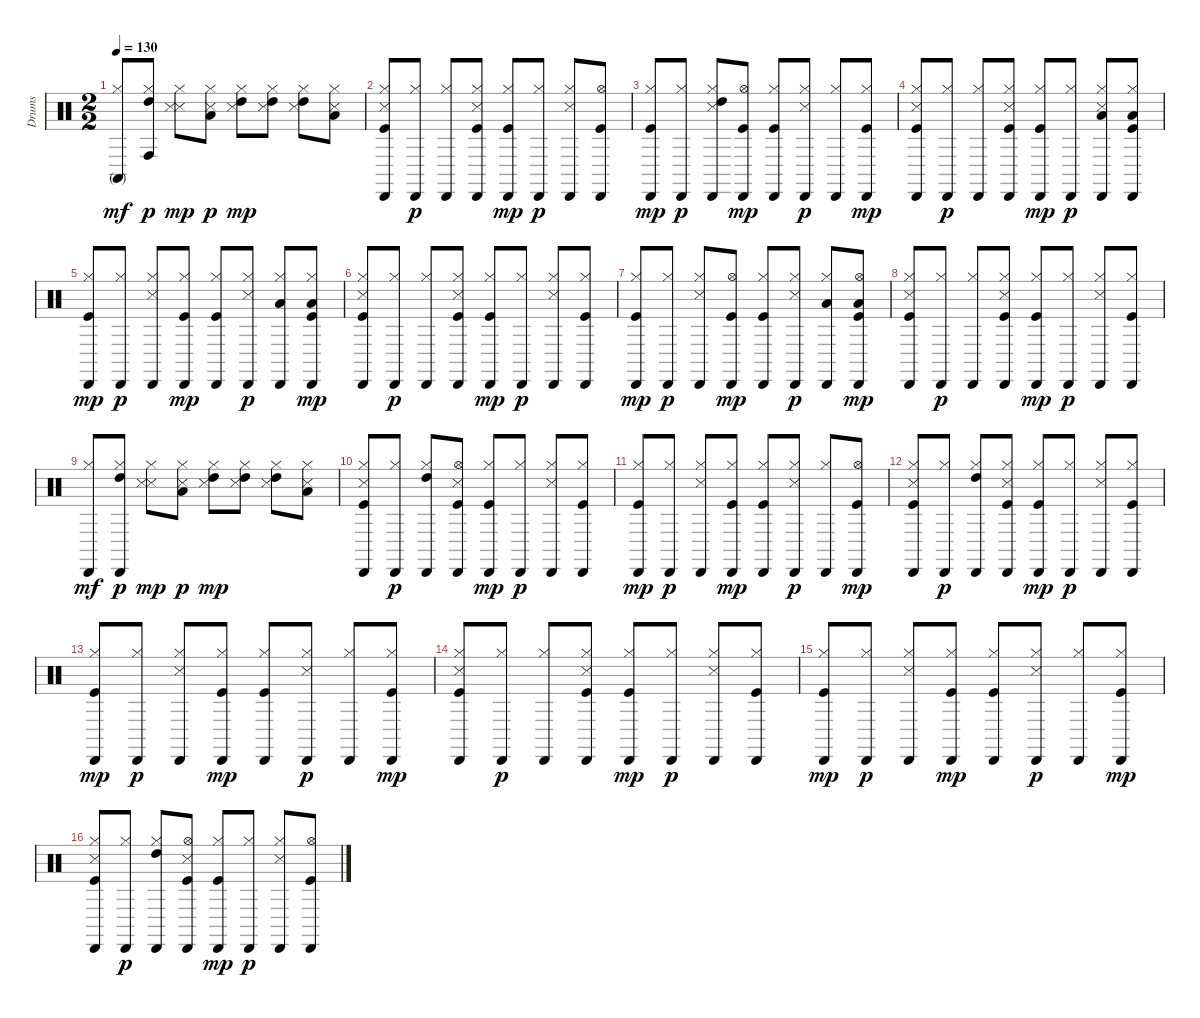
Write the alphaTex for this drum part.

\track ("Drums" "Drums") {instrument percussion}
\staff {score}
\articulation defaults
\ts (2 2)
\tempo 130
\clef neutral
\ks c
("Hi-Hat (closed)" "Conga high (mute)").8{dy mf} ("Hi-Hat (closed)" "High Tom (hit)" "Conga high (hit)").8{dy p} ("Snare (side stick) 3" "Snare (side stick) 3" "Hi-Hat (closed)").8{dy mp} ("Snare (side stick) 3" "Hi-Hat (closed)" "Low Tom (hit)").8{dy p} ("Snare (side stick) 3" "Hi-Hat (closed)" "High Tom (hit)").8{dy mp} ("Snare (side stick) 3" "Hi-Hat (closed)" "High Tom (hit)").8 ("Snare (side stick) 3" "Hi-Hat (closed)" "High Tom (hit)").8 ("Snare (side stick) 3" "Hi-Hat (closed)" "Low Tom (hit)").8 |
("Kick (hit)" "Snare (side stick) 3" "Hi-Hat (closed)" "Cabasa (hit)").8 ("Hi-Hat (closed)" "Cabasa (hit)").8{dy p} ("Hi-Hat (closed)" "Cabasa (hit)").8 ("Kick (hit)" "Snare (side stick) 3" "Hi-Hat (closed)" "Cabasa (hit)").8 ("Kick (hit)" "Hi-Hat (closed)" "Cabasa (hit)").8{dy mp} ("Hi-Hat (closed)" "Cabasa (hit)").8{dy p} ("Snare (side stick) 3" "Hi-Hat (closed)" "Cabasa (hit)").8 ("Kick (hit)" "Hi-Hat (open)" "Cabasa (hit)").8 |
("Kick (hit)" "Hi-Hat (closed)" "Cabasa (hit)").8{dy mp} ("Hi-Hat (closed)" "Cabasa (hit)").8{dy p} ("Snare (side stick) 3" "Hi-Hat (closed)" "High Tom (hit)" "Cabasa (hit)").8 ("Kick (hit)" "Hi-Hat (open)" "Cabasa (hit)").8{dy mp} ("Kick (hit)" "Hi-Hat (closed)" "Cabasa (hit)").8 ("Snare (side stick) 3" "Hi-Hat (closed)" "Cabasa (hit)").8{dy p} ("Hi-Hat (closed)" "Cabasa (hit)").8 ("Kick (hit)" "Hi-Hat (closed)" "Cabasa (hit)").8{dy mp} |
("Kick (hit)" "Snare (side stick) 3" "Hi-Hat (closed)" "Cabasa (hit)").8 ("Hi-Hat (closed)" "Cabasa (hit)").8{dy p} ("Hi-Hat (closed)" "Cabasa (hit)").8 ("Kick (hit)" "Snare (side stick) 3" "Hi-Hat (closed)" "Cabasa (hit)").8 ("Kick (hit)" "Hi-Hat (closed)" "Cabasa (hit)").8{dy mp} ("Hi-Hat (closed)" "Cabasa (hit)").8{dy p} ("Snare (side stick) 3" "Hi-Hat (closed)" "Low Tom (hit)" "Cabasa (hit)").8 ("Kick (hit)" "Hi-Hat (closed)" "Low Tom (hit)" "Cabasa (hit)").8 |
("Kick (hit)" "Hi-Hat (closed)" "Cabasa (hit)").8{dy mp} ("Hi-Hat (closed)" "Cabasa (hit)").8{dy p} ("Snare (side stick) 3" "Hi-Hat (closed)" "Cabasa (hit)").8 ("Kick (hit)" "Hi-Hat (closed)" "Cabasa (hit)").8{dy mp} ("Kick (hit)" "Hi-Hat (closed)" "Cabasa (hit)").8 ("Snare (side stick) 3" "Hi-Hat (closed)" "Cabasa (hit)").8{dy p} ("Hi-Hat (closed)" "Low Tom (hit)" "Cabasa (hit)").8 ("Kick (hit)" "Hi-Hat (closed)" "Low Tom (hit)" "Cabasa (hit)").8{dy mp} |
("Kick (hit)" "Snare (side stick) 3" "Hi-Hat (closed)" "Cabasa (hit)").8 ("Hi-Hat (closed)" "Cabasa (hit)").8{dy p} ("Hi-Hat (closed)" "Cabasa (hit)").8 ("Kick (hit)" "Snare (side stick) 3" "Hi-Hat (closed)" "Cabasa (hit)").8 ("Kick (hit)" "Hi-Hat (closed)" "Cabasa (hit)").8{dy mp} ("Hi-Hat (closed)" "Cabasa (hit)").8{dy p} ("Snare (side stick) 3" "Hi-Hat (closed)" "Cabasa (hit)").8 ("Kick (hit)" "Hi-Hat (closed)" "Cabasa (hit)").8 |
("Kick (hit)" "Hi-Hat (closed)" "Cabasa (hit)").8{dy mp} ("Hi-Hat (closed)" "Cabasa (hit)").8{dy p} ("Snare (side stick) 3" "Hi-Hat (closed)" "Cabasa (hit)").8 ("Kick (hit)" "Hi-Hat (open)" "Cabasa (hit)").8{dy mp} ("Kick (hit)" "Hi-Hat (closed)" "Cabasa (hit)").8 ("Snare (side stick) 3" "Hi-Hat (closed)" "Cabasa (hit)").8{dy p} ("Hi-Hat (closed)" "Low Tom (hit)" "Cabasa (hit)").8 ("Kick (hit)" "Low Tom (hit)" "Hi-Hat (open)" "Cabasa (hit)").8{dy mp} |
("Kick (hit)" "Snare (side stick) 3" "Hi-Hat (closed)" "Cabasa (hit)").8 ("Hi-Hat (closed)" "Cabasa (hit)").8{dy p} ("Hi-Hat (closed)" "Cabasa (hit)").8 ("Kick (hit)" "Snare (side stick) 3" "Hi-Hat (closed)" "Cabasa (hit)").8 ("Kick (hit)" "Hi-Hat (closed)" "Cabasa (hit)").8{dy mp} ("Hi-Hat (closed)" "Cabasa (hit)").8{dy p} ("Snare (side stick) 3" "Hi-Hat (closed)" "Cabasa (hit)").8 ("Kick (hit)" "Hi-Hat (closed)" "Cabasa (hit)").8 |
("Hi-Hat (closed)" "Cabasa (hit)").8{dy mf} ("Hi-Hat (closed)" "High Tom (hit)" "Cabasa (hit)").8{dy p} ("Snare (side stick) 3" "Snare (side stick) 3" "Hi-Hat (closed)").8{dy mp} ("Snare (side stick) 3" "Hi-Hat (closed)" "Low Tom (hit)").8{dy p} ("Snare (side stick) 3" "Hi-Hat (closed)" "High Tom (hit)").8{dy mp} ("Snare (side stick) 3" "Hi-Hat (closed)" "High Tom (hit)").8 ("Snare (side stick) 3" "Hi-Hat (closed)" "High Tom (hit)").8 ("Snare (side stick) 3" "Hi-Hat (closed)" "Low Tom (hit)").8 |
("Kick (hit)" "Snare (side stick) 3" "Hi-Hat (closed)" "Cabasa (hit)").8 ("Hi-Hat (closed)" "Cabasa (hit)").8{dy p} ("Hi-Hat (closed)" "High Tom (hit)" "Cabasa (hit)").8 ("Kick (hit)" "Snare (side stick) 3" "Hi-Hat (open)" "Cabasa (hit)").8 ("Kick (hit)" "Hi-Hat (closed)" "Cabasa (hit)").8{dy mp} ("Hi-Hat (closed)" "Cabasa (hit)").8{dy p} ("Snare (side stick) 3" "Hi-Hat (closed)" "Cabasa (hit)").8 ("Kick (hit)" "Hi-Hat (closed)" "Cabasa (hit)").8 |
("Kick (hit)" "Hi-Hat (closed)" "Cabasa (hit)").8{dy mp} ("Hi-Hat (closed)" "Cabasa (hit)").8{dy p} ("Snare (side stick) 3" "Hi-Hat (closed)" "Cabasa (hit)").8 ("Kick (hit)" "Hi-Hat (closed)" "Cabasa (hit)").8{dy mp} ("Kick (hit)" "Hi-Hat (closed)" "Cabasa (hit)").8 ("Snare (side stick) 3" "Hi-Hat (closed)" "Cabasa (hit)").8{dy p} ("Hi-Hat (closed)" "Cabasa (hit)").8 ("Kick (hit)" "Hi-Hat (open)" "Cabasa (hit)").8{dy mp} |
("Kick (hit)" "Snare (side stick) 3" "Hi-Hat (closed)" "Cabasa (hit)").8 ("Hi-Hat (closed)" "Cabasa (hit)").8{dy p} ("Hi-Hat (closed)" "High Tom (hit)" "Cabasa (hit)").8 ("Kick (hit)" "Snare (side stick) 3" "Hi-Hat (closed)" "Cabasa (hit)").8 ("Kick (hit)" "Hi-Hat (closed)" "Cabasa (hit)").8{dy mp} ("Hi-Hat (closed)" "Cabasa (hit)").8{dy p} ("Snare (side stick) 3" "Hi-Hat (closed)" "Cabasa (hit)").8 ("Kick (hit)" "Hi-Hat (closed)" "Cabasa (hit)").8 |
("Kick (hit)" "Hi-Hat (closed)" "Cabasa (hit)").8{dy mp} ("Hi-Hat (closed)" "Cabasa (hit)").8{dy p} ("Snare (side stick) 3" "Hi-Hat (closed)" "Cabasa (hit)").8 ("Kick (hit)" "Hi-Hat (closed)" "Cabasa (hit)").8{dy mp} ("Kick (hit)" "Hi-Hat (closed)" "Cabasa (hit)").8 ("Snare (side stick) 3" "Hi-Hat (closed)" "Cabasa (hit)").8{dy p} ("Hi-Hat (closed)" "Cabasa (hit)").8 ("Kick (hit)" "Hi-Hat (closed)" "Cabasa (hit)").8{dy mp} |
("Kick (hit)" "Snare (side stick) 3" "Hi-Hat (closed)" "Cabasa (hit)").8 ("Hi-Hat (closed)" "Cabasa (hit)").8{dy p} ("Hi-Hat (closed)" "Cabasa (hit)").8 ("Kick (hit)" "Snare (side stick) 3" "Hi-Hat (closed)" "Cabasa (hit)").8 ("Kick (hit)" "Hi-Hat (closed)" "Cabasa (hit)").8{dy mp} ("Hi-Hat (closed)" "Cabasa (hit)").8{dy p} ("Snare (side stick) 3" "Hi-Hat (closed)" "Cabasa (hit)").8 ("Kick (hit)" "Hi-Hat (closed)" "Cabasa (hit)").8 |
("Kick (hit)" "Hi-Hat (closed)" "Cabasa (hit)").8{dy mp} ("Hi-Hat (closed)" "Cabasa (hit)").8{dy p} ("Snare (side stick) 3" "Hi-Hat (closed)" "Cabasa (hit)").8 ("Kick (hit)" "Hi-Hat (closed)" "Cabasa (hit)").8{dy mp} ("Kick (hit)" "Hi-Hat (closed)" "Cabasa (hit)").8 ("Snare (side stick) 3" "Hi-Hat (closed)" "Cabasa (hit)").8{dy p} ("Hi-Hat (closed)" "Cabasa (hit)").8 ("Kick (hit)" "Hi-Hat (closed)" "Cabasa (hit)").8{dy mp} |
("Kick (hit)" "Snare (side stick) 3" "Hi-Hat (closed)" "Cabasa (hit)").8 ("Hi-Hat (closed)" "Cabasa (hit)").8{dy p} ("Hi-Hat (closed)" "High Tom (hit)" "Cabasa (hit)").8 ("Kick (hit)" "Snare (side stick) 3" "Hi-Hat (open)" "Cabasa (hit)").8 ("Kick (hit)" "Hi-Hat (closed)" "Cabasa (hit)").8{dy mp} ("Hi-Hat (closed)" "Cabasa (hit)").8{dy p} ("Snare (side stick) 3" "Hi-Hat (closed)" "Cabasa (hit)").8 ("Kick (hit)" "Hi-Hat (open)" "Cabasa (hit)").8
